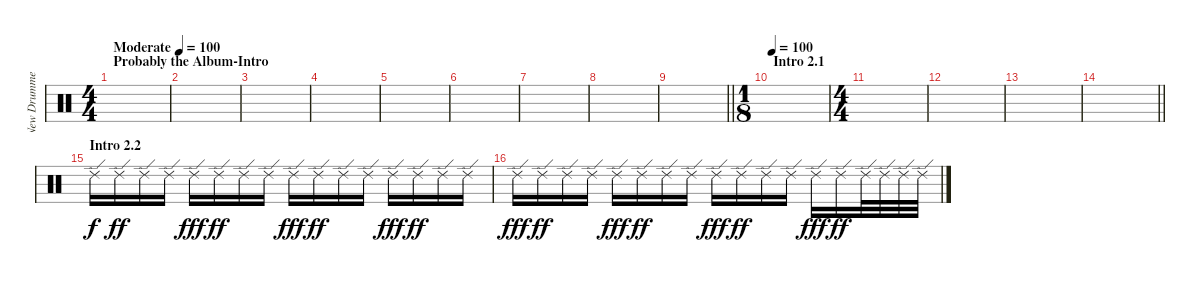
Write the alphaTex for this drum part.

\track ("New Drummer" "New Drumme") {instrument percussion}
\staff {score}
\articulation defaults
\ts (4 4)
\section ("" "Probably the Album-Intro")
\tempo (100 "Moderate")
\tempo 90
\tempo (100 "Moderate")
\clef neutral
\ks c
|
|
|
|
|
|
|
|
\barLineRight lightlight
|
\ts (1 8)
\section ("" "Intro 2.1")
\tempo 100
|
\ts (4 4)
|
|
|
\barLineRight lightlight
|
\section ("" "Intro 2.2")
"Ride (edge) 2".16 "Ride (edge) 2".16{dy ff} "Ride (edge) 2".16 "Ride (edge) 2".16 "Ride (edge) 2".16{dy fff} "Ride (edge) 2".16{dy ff} "Ride (edge) 2".16 "Ride (edge) 2".16 "Ride (edge) 2".16{dy fff} "Ride (edge) 2".16{dy ff} "Ride (edge) 2".16 "Ride (edge) 2".16 "Ride (edge) 2".16{dy fff} "Ride (edge) 2".16{dy ff} "Ride (edge) 2".16 "Ride (edge) 2".16 |
"Ride (edge) 2".16{dy fff} "Ride (edge) 2".16{dy ff} "Ride (edge) 2".16 "Ride (edge) 2".16 "Ride (edge) 2".16{dy fff} "Ride (edge) 2".16{dy ff} "Ride (edge) 2".16 "Ride (edge) 2".16 "Ride (edge) 2".16{dy fff} "Ride (edge) 2".16{dy ff} "Ride (edge) 2".16 "Ride (edge) 2".16 "Ride (edge) 2".16{dy fff} "Ride (edge) 2".16{dy ff} "Ride (edge) 2".32 "Ride (edge) 2".32 "Ride (edge) 2".32 "Ride (edge) 2".32
